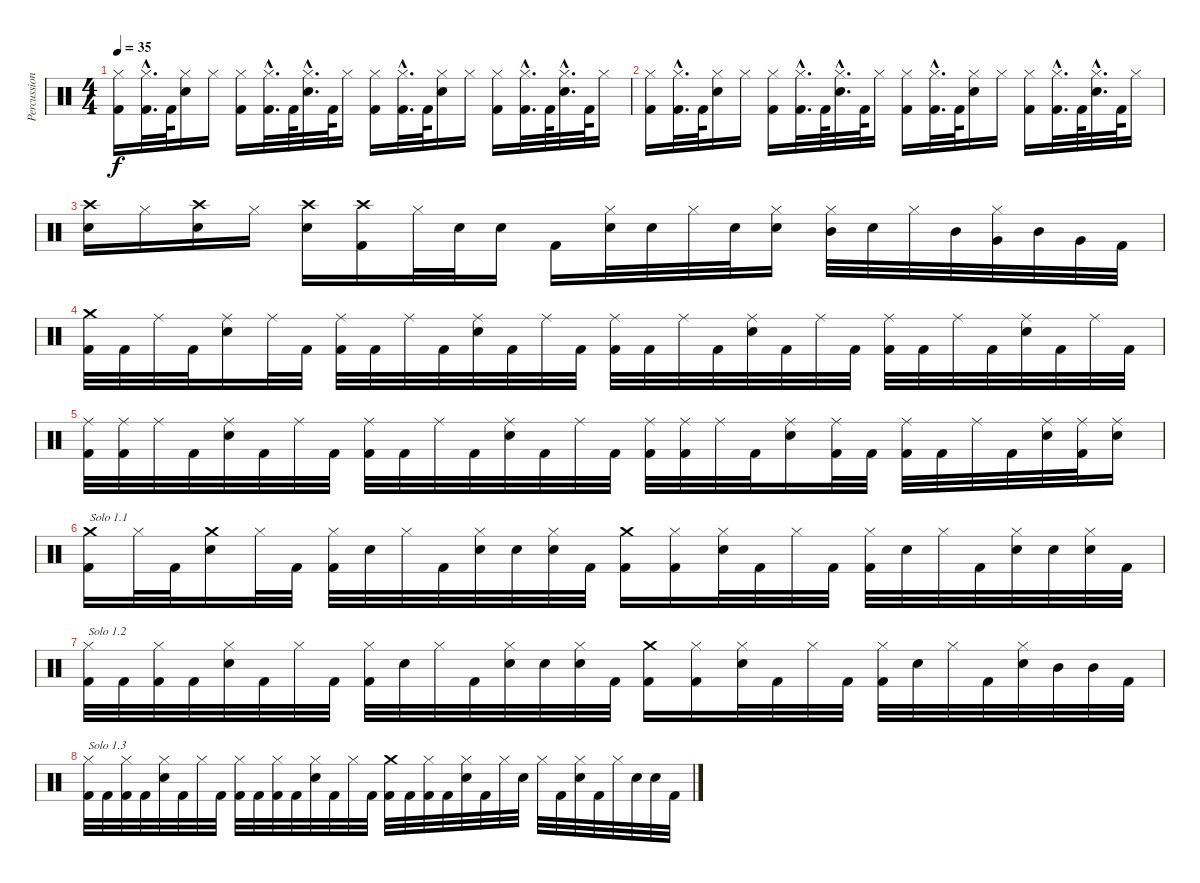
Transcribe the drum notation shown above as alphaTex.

\track ("Percussion" "Percussion") {instrument percussion}
\staff {score}
\articulation defaults
\ts (4 4)
\tempo 35
\clef neutral
\ks c
("Hi-Hat (closed)" "Kick (hit) 2").16{dy f} ("Hi-Hat (closed)"{hac} "Kick (hit) 2"{hac}).32{d} "Kick (hit) 2".64 ("Hi-Hat (closed)" "Snare (hit) 2").16 "Hi-Hat (closed)".16 ("Hi-Hat (closed)" "Kick (hit) 2").16 ("Hi-Hat (closed)"{hac} "Kick (hit) 2"{hac}).32{d} "Kick (hit) 2".64 ("Hi-Hat (closed)"{hac} "Snare (hit) 2"{hac}).32{d} "Kick (hit) 2".64 "Hi-Hat (closed)".16 ("Hi-Hat (closed)" "Kick (hit) 2").16 ("Hi-Hat (closed)"{hac} "Kick (hit) 2"{hac}).32{d} "Kick (hit) 2".64 ("Hi-Hat (closed)" "Snare (hit) 2").16 "Hi-Hat (closed)".16 ("Hi-Hat (closed)" "Kick (hit) 2").16 ("Hi-Hat (closed)"{hac} "Kick (hit) 2"{hac}).32{d} "Kick (hit) 2".64 ("Hi-Hat (closed)"{hac} "Snare (hit) 2"{hac}).32{d} "Kick (hit) 2".64 "Hi-Hat (closed)".16 |
("Hi-Hat (closed)" "Kick (hit) 2").16 ("Hi-Hat (closed)"{hac} "Kick (hit) 2"{hac}).32{d} "Kick (hit) 2".64 ("Hi-Hat (closed)" "Snare (hit) 2").16 "Hi-Hat (closed)".16 ("Hi-Hat (closed)" "Kick (hit) 2").16 ("Hi-Hat (closed)"{hac} "Kick (hit) 2"{hac}).32{d} "Kick (hit) 2".64 ("Hi-Hat (closed)"{hac} "Snare (hit) 2"{hac}).32{d} "Kick (hit) 2".64 "Hi-Hat (closed)".16 ("Hi-Hat (closed)" "Kick (hit) 2").16 ("Hi-Hat (closed)"{hac} "Kick (hit) 2"{hac}).32{d} "Kick (hit) 2".64 ("Hi-Hat (closed)" "Snare (hit) 2").16 "Hi-Hat (closed)".16 ("Hi-Hat (closed)" "Kick (hit) 2").16 ("Hi-Hat (closed)"{hac} "Kick (hit) 2"{hac}).32{d} "Kick (hit) 2".64 ("Hi-Hat (closed)"{hac} "Snare (hit) 2"{hac}).32{d} "Kick (hit) 2".64 "Hi-Hat (closed)".16 |
("Crash high (hit)" "Snare (hit) 2").16 "Hi-Hat (closed)".16 ("Crash high (hit)" "Snare (hit) 2").16 "Hi-Hat (closed)".16 ("Crash high (hit)" "Snare (hit) 2").16 ("Crash high (hit)" "Kick (hit) 2").16 "Hi-Hat (closed)".32 "Snare (hit) 2".32 "Snare (hit) 2".16 "Kick (hit) 2".16 ("Hi-Hat (closed)" "Snare (hit) 2").32 "Snare (hit) 2".32 "Hi-Hat (closed)".32 "Snare (hit) 2".32 ("Hi-Hat (closed)" "Snare (hit) 2").16 ("Hi-Hat (closed)" "Mid Tom (hit)").32 "Snare (hit) 2".32 "Hi-Hat (closed)".32 "Mid Tom (hit)".32 ("Hi-Hat (closed)" "Very Low Tom (hit)").32 "Mid Tom (hit)".32 "Very Low Tom (hit)".32 "Kick (hit) 2".32 |
("Crash medium (hit)" "Kick (hit) 2").32 "Kick (hit) 2".32 "Ride (middle)".32 "Kick (hit) 2".32 ("Ride (middle)" "Snare (hit) 2").16 "Ride (middle)".32 "Kick (hit) 2".32 ("Ride (middle)" "Kick (hit) 2").32 "Kick (hit) 2".32 "Ride (middle)".32 "Kick (hit) 2".32 ("Ride (middle)" "Snare (hit) 2").32 "Kick (hit) 2".32 "Ride (middle)".32 "Kick (hit) 2".32 ("Ride (middle)" "Kick (hit) 2").32 "Kick (hit) 2".32 "Ride (middle)".32 "Kick (hit) 2".32 ("Ride (middle)" "Snare (hit) 2").32 "Kick (hit) 2".32 "Ride (middle)".32 "Kick (hit) 2".32 ("Ride (middle)" "Kick (hit) 2").32 "Kick (hit) 2".32 "Ride (middle)".32 "Kick (hit) 2".32 ("Ride (middle)" "Snare (hit) 2").32 "Kick (hit) 2".32 "Ride (middle)".32 "Kick (hit) 2".32 |
("Ride (middle)" "Kick (hit) 2").32 ("Ride (middle)" "Kick (hit) 2").32 "Ride (middle)".32 "Kick (hit) 2".32 ("Ride (middle)" "Snare (hit) 2").32 "Kick (hit) 2".32 "Ride (middle)".32 "Kick (hit) 2".32 ("Ride (middle)" "Kick (hit) 2").32 "Kick (hit) 2".32 "Ride (middle)".32 "Kick (hit) 2".32 ("Ride (middle)" "Snare (hit) 2").32 "Kick (hit) 2".32 "Ride (middle)".32 "Kick (hit) 2".32 ("Ride (middle)" "Kick (hit) 2").32 ("Ride (middle)" "Kick (hit) 2").32 "Ride (middle)".32 "Kick (hit) 2".32 ("Ride (middle)" "Snare (hit) 2").16 ("Ride (middle)" "Kick (hit) 2").32 "Kick (hit) 2".32 ("Ride (middle)" "Kick (hit) 2").32 "Kick (hit) 2".32 "Ride (middle)".32 "Kick (hit) 2".32 ("Ride (middle)" "Snare (hit) 2").32 ("Ride (middle)" "Kick (hit) 2").32 ("Ride (middle)" "Snare (hit) 2").16 |
("Crash medium (hit)" "Kick (hit) 2").16{txt "Solo 1.1"} "Hi-Hat (closed)".32 "Kick (hit) 2".32 ("Crash medium (hit)" "Snare (hit) 2").16 "Hi-Hat (closed)".32 "Kick (hit) 2".32 ("Hi-Hat (closed)" "Kick (hit) 2").32 "Snare (hit) 2".32 "Hi-Hat (closed)".32 "Kick (hit) 2".32 ("Hi-Hat (closed)" "Snare (hit) 2").32 "Snare (hit) 2".32 ("Hi-Hat (closed)" "Snare (hit) 2").32 "Kick (hit) 2".32 ("Crash medium (hit)" "Kick (hit) 2").16 ("Hi-Hat (closed)" "Kick (hit) 2").16 ("Hi-Hat (closed)" "Snare (hit) 2").32 "Kick (hit) 2".32 "Hi-Hat (closed)".32 "Kick (hit) 2".32 ("Hi-Hat (closed)" "Kick (hit) 2").32 "Snare (hit) 2".32 "Hi-Hat (closed)".32 "Kick (hit) 2".32 ("Hi-Hat (closed)" "Snare (hit) 2").32 "Snare (hit) 2".32 ("Hi-Hat (closed)" "Snare (hit) 2").32 "Kick (hit) 2".32 |
("Hi-Hat (closed)" "Kick (hit) 2").32{txt "Solo 1.2"} "Kick (hit) 2".32 ("Hi-Hat (closed)" "Kick (hit) 2").32 "Kick (hit) 2".32 ("Hi-Hat (closed)" "Snare (hit) 2").32 "Kick (hit) 2".32 "Hi-Hat (closed)".32 "Kick (hit) 2".32 ("Hi-Hat (closed)" "Kick (hit) 2").32 "Snare (hit) 2".32 "Hi-Hat (closed)".32 "Kick (hit) 2".32 ("Hi-Hat (closed)" "Snare (hit) 2").32 "Snare (hit) 2".32 ("Hi-Hat (closed)" "Snare (hit) 2").32 "Kick (hit) 2".32 ("Crash medium (hit)" "Kick (hit) 2").16 ("Hi-Hat (closed)" "Kick (hit) 2").16 ("Hi-Hat (closed)" "Snare (hit) 2").32 "Kick (hit) 2".32 "Hi-Hat (closed)".32 "Kick (hit) 2".32 ("Hi-Hat (closed)" "Kick (hit) 2").32 "Snare (hit) 2".32 "Hi-Hat (closed)".32 "Kick (hit) 2".32 ("Hi-Hat (closed)" "Snare (hit) 2").32 "Mid Tom (hit)".32 "Mid Tom (hit)".32 "Kick (hit) 2".32 |
("Hi-Hat (closed)" "Kick (hit) 2").32{txt "Solo 1.3"} "Kick (hit) 2".32 ("Hi-Hat (closed)" "Kick (hit) 2").32 "Kick (hit) 2".32 ("Hi-Hat (closed)" "Snare (hit) 2").32 "Kick (hit) 2".32 "Hi-Hat (closed)".32 "Kick (hit) 2".32 ("Hi-Hat (closed)" "Kick (hit) 2").32 "Kick (hit) 2".32 ("Hi-Hat (closed)" "Kick (hit) 2").32 "Kick (hit) 2".32 ("Hi-Hat (closed)" "Snare (hit) 2").32 "Kick (hit) 2".32 "Hi-Hat (closed)".32 "Kick (hit) 2".32 ("Crash medium (hit)" "Kick (hit) 2").32 "Kick (hit) 2".32 ("Hi-Hat (closed)" "Kick (hit) 2").32 "Kick (hit) 2".32 ("Hi-Hat (closed)" "Snare (hit) 2").32 "Kick (hit) 2".32 "Hi-Hat (closed)".32 "Snare (hit) 2".32 "Hi-Hat (closed)".32 "Kick (hit) 2".32 ("Hi-Hat (closed)" "Snare (hit) 2").32 "Kick (hit) 2".32 "Hi-Hat (closed)".32 "Snare (hit) 2".32 "Snare (hit) 2".32 "Kick (hit) 2".32
